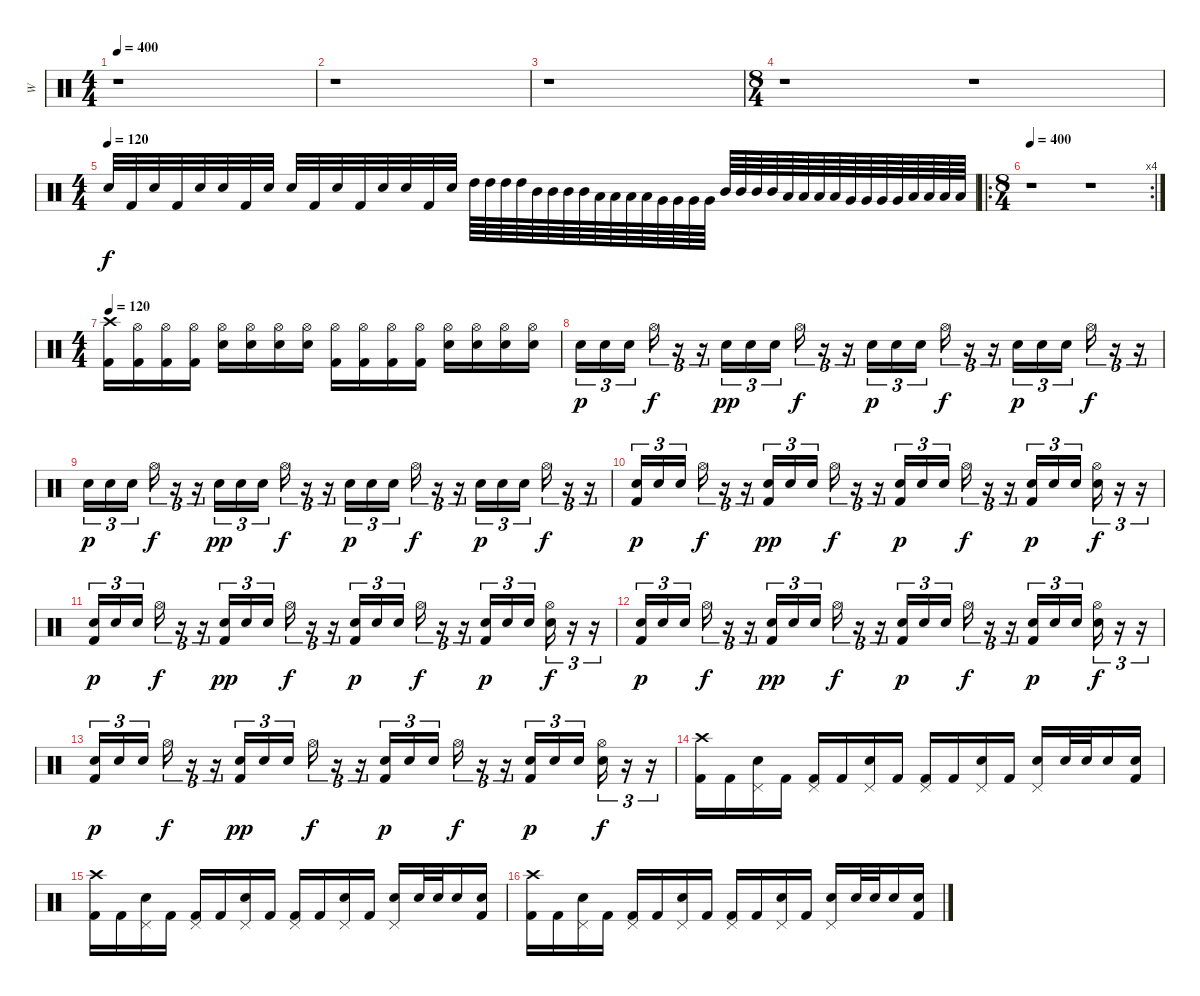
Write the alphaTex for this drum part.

\track ("W" "W") {instrument percussion}
\staff {score}
\articulation defaults
\ts (4 4)
\tempo 400
\clef neutral
\ks c
r.1{dy f} |
r.1 |
r.1 |
\ts (8 4)
r.1 r.1 |
\ts (4 4)
\tempo (120)
"Electric Snare (hit)".32 "Kick (hit) 2".32 "Electric Snare (hit)".32 "Kick (hit) 2".32 "Electric Snare (hit)".32 "Electric Snare (hit)".32 "Kick (hit) 2".32 "Electric Snare (hit)".32 "Electric Snare (hit)".32 "Kick (hit) 2".32 "Electric Snare (hit)".32 "Kick (hit) 2".32 "Electric Snare (hit)".32 "Electric Snare (hit)".32 "Kick (hit) 2".32 "Electric Snare (hit)".32 "High Tom (hit)".64 "High Tom (hit)".64 "High Tom (hit)".64 "High Tom (hit)".64 "Mid Tom (hit)".64 "Mid Tom (hit)".64 "Mid Tom (hit)".64 "Mid Tom (hit)".64 "Low Tom (hit)".64 "Low Tom (hit)".64 "Low Tom (hit)".64 "Low Tom (hit)".64 "Very Low Tom (hit)".64 "Very Low Tom (hit)".64 "Very Low Tom (hit)".64 "Very Low Tom (hit)".64 "Mid Tom (hit)".64 "Mid Tom (hit)".64 "Mid Tom (hit)".64 "Mid Tom (hit)".64 "Low Tom (hit)".64 "Low Tom (hit)".64 "Low Tom (hit)".64 "Low Tom (hit)".64 "Very Low Tom (hit)".64 "Very Low Tom (hit)".64 "Very Low Tom (hit)".64 "Very Low Tom (hit)".64 "Low Floor Tom (hit)".64 "Low Floor Tom (hit)".64 "Low Floor Tom (hit)".64 "Low Floor Tom (hit)".64 |
\ro
\rc 4
\ts (8 4)
\tempo 400
r.1 r.1 |
\ts (4 4)
\tempo 120
("Crash high (hit)" "Kick (hit) 2").16 ("Hi-Hat (open)" "Kick (hit) 2").16 ("Hi-Hat (open)" "Kick (hit) 2").16 ("Hi-Hat (open)" "Kick (hit) 2").16 ("Hi-Hat (open)" "Electric Snare (hit)").16 ("Hi-Hat (open)" "Electric Snare (hit)").16 ("Hi-Hat (open)" "Electric Snare (hit)").16 ("Hi-Hat (open)" "Electric Snare (hit)").16 ("Hi-Hat (open)" "Kick (hit) 2").16 ("Hi-Hat (open)" "Kick (hit) 2").16 ("Hi-Hat (open)" "Kick (hit) 2").16 ("Hi-Hat (open)" "Kick (hit) 2").16 ("Hi-Hat (open)" "Electric Snare (hit)").16 ("Hi-Hat (open)" "Electric Snare (hit)").16 ("Hi-Hat (open)" "Electric Snare (hit)").16 ("Hi-Hat (open)" "Electric Snare (hit)").16 |
"Electric Snare (hit)".16{tu (3 2) dy p} "Electric Snare (hit)".16{tu (3 2)} "Electric Snare (hit)".16{tu (3 2)} "Hi-Hat (open)".16{tu (3 2) dy f} r.16{tu (3 2)} r.16{tu (3 2)} "Electric Snare (hit)".16{tu (3 2) dy pp} "Electric Snare (hit)".16{tu (3 2)} "Electric Snare (hit)".16{tu (3 2)} "Hi-Hat (open)".16{tu (3 2) dy f} r.16{tu (3 2)} r.16{tu (3 2)} "Electric Snare (hit)".16{tu (3 2) dy p} "Electric Snare (hit)".16{tu (3 2)} "Electric Snare (hit)".16{tu (3 2)} "Hi-Hat (open)".16{tu (3 2) dy f} r.16{tu (3 2)} r.16{tu (3 2)} "Electric Snare (hit)".16{tu (3 2) dy p} "Electric Snare (hit)".16{tu (3 2)} "Electric Snare (hit)".16{tu (3 2)} "Hi-Hat (open)".16{tu (3 2) dy f} r.16{tu (3 2)} r.16{tu (3 2)} |
"Electric Snare (hit)".16{tu (3 2) dy p} "Electric Snare (hit)".16{tu (3 2)} "Electric Snare (hit)".16{tu (3 2)} "Hi-Hat (open)".16{tu (3 2) dy f} r.16{tu (3 2)} r.16{tu (3 2)} "Electric Snare (hit)".16{tu (3 2) dy pp} "Electric Snare (hit)".16{tu (3 2)} "Electric Snare (hit)".16{tu (3 2)} "Hi-Hat (open)".16{tu (3 2) dy f} r.16{tu (3 2)} r.16{tu (3 2)} "Electric Snare (hit)".16{tu (3 2) dy p} "Electric Snare (hit)".16{tu (3 2)} "Electric Snare (hit)".16{tu (3 2)} "Hi-Hat (open)".16{tu (3 2) dy f} r.16{tu (3 2)} r.16{tu (3 2)} "Electric Snare (hit)".16{tu (3 2) dy p} "Electric Snare (hit)".16{tu (3 2)} "Electric Snare (hit)".16{tu (3 2)} "Hi-Hat (open)".16{tu (3 2) dy f} r.16{tu (3 2)} r.16{tu (3 2)} |
("Electric Snare (hit)" "Kick (hit) 2").16{tu (3 2) dy p} "Electric Snare (hit)".16{tu (3 2)} "Electric Snare (hit)".16{tu (3 2)} "Hi-Hat (open)".16{tu (3 2) dy f} r.16{tu (3 2)} r.16{tu (3 2)} ("Electric Snare (hit)" "Kick (hit) 2").16{tu (3 2) dy pp} "Electric Snare (hit)".16{tu (3 2)} "Electric Snare (hit)".16{tu (3 2)} "Hi-Hat (open)".16{tu (3 2) dy f} r.16{tu (3 2)} r.16{tu (3 2)} ("Electric Snare (hit)" "Kick (hit) 2").16{tu (3 2) dy p} "Electric Snare (hit)".16{tu (3 2)} "Electric Snare (hit)".16{tu (3 2)} "Hi-Hat (open)".16{tu (3 2) dy f} r.16{tu (3 2)} r.16{tu (3 2)} ("Electric Snare (hit)" "Kick (hit) 2").16{tu (3 2) dy p} "Electric Snare (hit)".16{tu (3 2)} "Electric Snare (hit)".16{tu (3 2)} ("Hi-Hat (open)" "Electric Snare (hit)").16{tu (3 2) dy f} r.16{tu (3 2)} r.16{tu (3 2)} |
("Electric Snare (hit)" "Kick (hit) 2").16{tu (3 2) dy p} "Electric Snare (hit)".16{tu (3 2)} "Electric Snare (hit)".16{tu (3 2)} "Hi-Hat (open)".16{tu (3 2) dy f} r.16{tu (3 2)} r.16{tu (3 2)} ("Electric Snare (hit)" "Kick (hit) 2").16{tu (3 2) dy pp} "Electric Snare (hit)".16{tu (3 2)} "Electric Snare (hit)".16{tu (3 2)} "Hi-Hat (open)".16{tu (3 2) dy f} r.16{tu (3 2)} r.16{tu (3 2)} ("Electric Snare (hit)" "Kick (hit) 2").16{tu (3 2) dy p} "Electric Snare (hit)".16{tu (3 2)} "Electric Snare (hit)".16{tu (3 2)} "Hi-Hat (open)".16{tu (3 2) dy f} r.16{tu (3 2)} r.16{tu (3 2)} ("Electric Snare (hit)" "Kick (hit) 2").16{tu (3 2) dy p} "Electric Snare (hit)".16{tu (3 2)} "Electric Snare (hit)".16{tu (3 2)} ("Hi-Hat (open)" "Electric Snare (hit)").16{tu (3 2) dy f} r.16{tu (3 2)} r.16{tu (3 2)} |
("Electric Snare (hit)" "Kick (hit) 2").16{tu (3 2) dy p} "Electric Snare (hit)".16{tu (3 2)} "Electric Snare (hit)".16{tu (3 2)} "Hi-Hat (open)".16{tu (3 2) dy f} r.16{tu (3 2)} r.16{tu (3 2)} ("Electric Snare (hit)" "Kick (hit) 2").16{tu (3 2) dy pp} "Electric Snare (hit)".16{tu (3 2)} "Electric Snare (hit)".16{tu (3 2)} "Hi-Hat (open)".16{tu (3 2) dy f} r.16{tu (3 2)} r.16{tu (3 2)} ("Electric Snare (hit)" "Kick (hit) 2").16{tu (3 2) dy p} "Electric Snare (hit)".16{tu (3 2)} "Electric Snare (hit)".16{tu (3 2)} "Hi-Hat (open)".16{tu (3 2) dy f} r.16{tu (3 2)} r.16{tu (3 2)} ("Electric Snare (hit)" "Kick (hit) 2").16{tu (3 2) dy p} "Electric Snare (hit)".16{tu (3 2)} "Electric Snare (hit)".16{tu (3 2)} ("Hi-Hat (open)" "Electric Snare (hit)").16{tu (3 2) dy f} r.16{tu (3 2)} r.16{tu (3 2)} |
("Electric Snare (hit)" "Kick (hit) 2").16{tu (3 2) dy p} "Electric Snare (hit)".16{tu (3 2)} "Electric Snare (hit)".16{tu (3 2)} "Hi-Hat (open)".16{tu (3 2) dy f} r.16{tu (3 2)} r.16{tu (3 2)} ("Electric Snare (hit)" "Kick (hit) 2").16{tu (3 2) dy pp} "Electric Snare (hit)".16{tu (3 2)} "Electric Snare (hit)".16{tu (3 2)} "Hi-Hat (open)".16{tu (3 2) dy f} r.16{tu (3 2)} r.16{tu (3 2)} ("Electric Snare (hit)" "Kick (hit) 2").16{tu (3 2) dy p} "Electric Snare (hit)".16{tu (3 2)} "Electric Snare (hit)".16{tu (3 2)} "Hi-Hat (open)".16{tu (3 2) dy f} r.16{tu (3 2)} r.16{tu (3 2)} ("Electric Snare (hit)" "Kick (hit) 2").16{tu (3 2) dy p} "Electric Snare (hit)".16{tu (3 2)} "Electric Snare (hit)".16{tu (3 2)} ("Hi-Hat (open)" "Electric Snare (hit)").16{tu (3 2) dy f} r.16{tu (3 2)} r.16{tu (3 2)} |
("Crash high (hit)" "Kick (hit) 2").16 "Kick (hit) 2".16 ("Pedal Hi-Hat (hit)" "Electric Snare (hit)").16 "Kick (hit) 2".16 ("Pedal Hi-Hat (hit)" "Kick (hit) 2").16 "Kick (hit) 2".16 ("Pedal Hi-Hat (hit)" "Electric Snare (hit)").16 "Kick (hit) 2".16 ("Pedal Hi-Hat (hit)" "Kick (hit) 2").16 "Kick (hit) 2".16 ("Pedal Hi-Hat (hit)" "Electric Snare (hit)").16 "Kick (hit) 2".16 ("Pedal Hi-Hat (hit)" "Electric Snare (hit)").16 "Electric Snare (hit)".32 "Electric Snare (hit)".32 "Electric Snare (hit)".16 ("Electric Snare (hit)" "Kick (hit) 2").16 |
("Crash high (hit)" "Kick (hit) 2").16 "Kick (hit) 2".16 ("Pedal Hi-Hat (hit)" "Electric Snare (hit)").16 "Kick (hit) 2".16 ("Pedal Hi-Hat (hit)" "Kick (hit) 2").16 "Kick (hit) 2".16 ("Pedal Hi-Hat (hit)" "Electric Snare (hit)").16 "Kick (hit) 2".16 ("Pedal Hi-Hat (hit)" "Kick (hit) 2").16 "Kick (hit) 2".16 ("Pedal Hi-Hat (hit)" "Electric Snare (hit)").16 "Kick (hit) 2".16 ("Pedal Hi-Hat (hit)" "Electric Snare (hit)").16 "Electric Snare (hit)".32 "Electric Snare (hit)".32 "Electric Snare (hit)".16 ("Electric Snare (hit)" "Kick (hit) 2").16 |
("Crash high (hit)" "Kick (hit) 2").16 "Kick (hit) 2".16 ("Pedal Hi-Hat (hit)" "Electric Snare (hit)").16 "Kick (hit) 2".16 ("Pedal Hi-Hat (hit)" "Kick (hit) 2").16 "Kick (hit) 2".16 ("Pedal Hi-Hat (hit)" "Electric Snare (hit)").16 "Kick (hit) 2".16 ("Pedal Hi-Hat (hit)" "Kick (hit) 2").16 "Kick (hit) 2".16 ("Pedal Hi-Hat (hit)" "Electric Snare (hit)").16 "Kick (hit) 2".16 ("Pedal Hi-Hat (hit)" "Electric Snare (hit)").16 "Electric Snare (hit)".32 "Electric Snare (hit)".32 "Electric Snare (hit)".16 ("Electric Snare (hit)" "Kick (hit) 2").16
